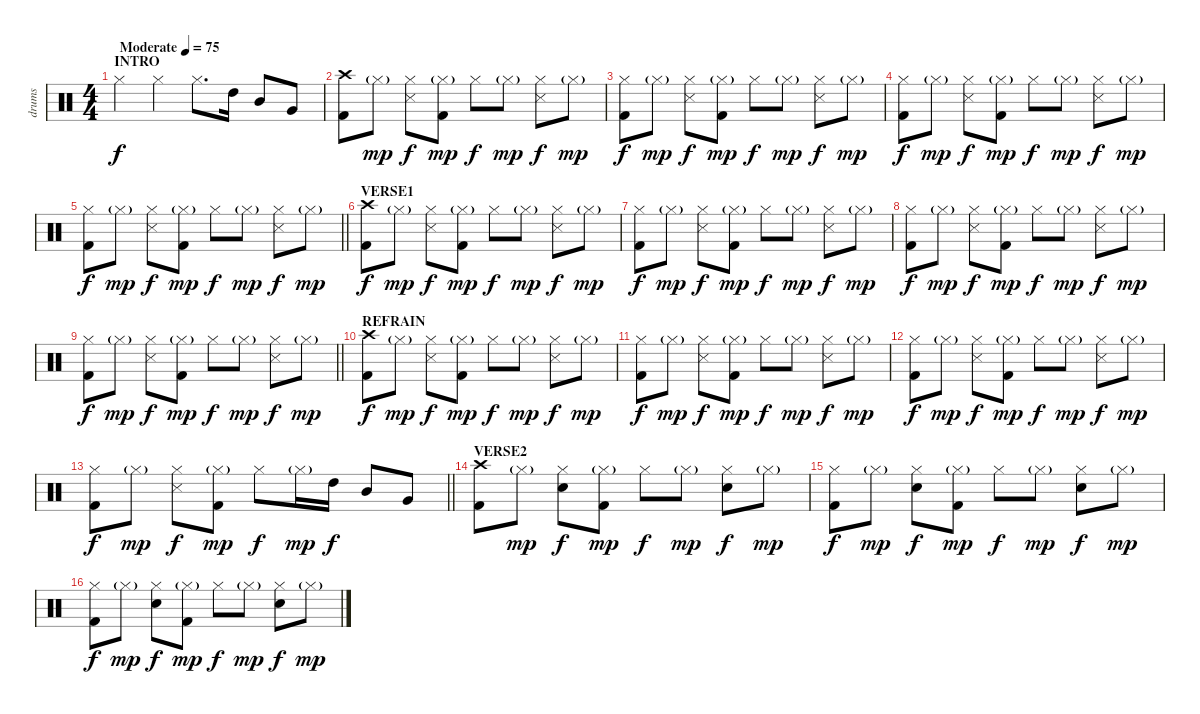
\track ("drums" "drums") {instrument percussion}
\staff
\articulation defaults
\ts (4 4)
\section ("" "INTRO")
\tempo (75 "Moderate")
\clef neutral
\ks c "Hi-Hat (closed)".4{dy f} "Hi-Hat (closed)".4 "Hi-Hat (closed)".8{d} "High Tom (hit)".16 "Mid Tom (hit)".8 "Very Low Tom (hit)".8
|
("Crash high (hit)" "Kick (hit) 2").8 "Hi-Hat (closed)"{g}.8{dy mp} ("Hi-Hat (closed)" "Snare (side stick) 3").8{dy f} ("Hi-Hat (closed)"{g} "Kick (hit) 2").8{dy mp} "Hi-Hat (closed)".8{dy f} "Hi-Hat (closed)"{g}.8{dy mp} ("Hi-Hat (closed)" "Snare (side stick) 3").8{dy f} "Hi-Hat (closed)"{g}.8{dy mp} |
("Hi-Hat (closed)" "Kick (hit) 2").8{dy f} "Hi-Hat (closed)"{g}.8{dy mp} ("Hi-Hat (closed)" "Snare (side stick) 3").8{dy f} ("Hi-Hat (closed)"{g} "Kick (hit) 2").8{dy mp} "Hi-Hat (closed)".8{dy f} "Hi-Hat (closed)"{g}.8{dy mp} ("Hi-Hat (closed)" "Snare (side stick) 3").8{dy f} "Hi-Hat (closed)"{g}.8{dy mp} |
("Hi-Hat (closed)" "Kick (hit) 2").8{dy f} "Hi-Hat (closed)"{g}.8{dy mp} ("Hi-Hat (closed)" "Snare (side stick) 3").8{dy f} ("Hi-Hat (closed)"{g} "Kick (hit) 2").8{dy mp} "Hi-Hat (closed)".8{dy f} "Hi-Hat (closed)"{g}.8{dy mp} ("Hi-Hat (closed)" "Snare (side stick) 3").8{dy f} "Hi-Hat (closed)"{g}.8{dy mp} |
\barLineRight lightlight
("Hi-Hat (closed)" "Kick (hit) 2").8{dy f} "Hi-Hat (closed)"{g}.8{dy mp} ("Hi-Hat (closed)" "Snare (side stick) 3").8{dy f} ("Hi-Hat (closed)"{g} "Kick (hit) 2").8{dy mp} "Hi-Hat (closed)".8{dy f} "Hi-Hat (closed)"{g}.8{dy mp} ("Hi-Hat (closed)" "Snare (side stick) 3").8{dy f} "Hi-Hat (closed)"{g}.8{dy mp} |
\section ("" "VERSE1")
("Crash high (hit)" "Kick (hit) 2").8{dy f} "Hi-Hat (closed)"{g}.8{dy mp} ("Hi-Hat (closed)" "Snare (side stick) 3").8{dy f} ("Hi-Hat (closed)"{g} "Kick (hit) 2").8{dy mp} "Hi-Hat (closed)".8{dy f} "Hi-Hat (closed)"{g}.8{dy mp} ("Hi-Hat (closed)" "Snare (side stick) 3").8{dy f} "Hi-Hat (closed)"{g}.8{dy mp} |
("Hi-Hat (closed)" "Kick (hit) 2").8{dy f} "Hi-Hat (closed)"{g}.8{dy mp} ("Hi-Hat (closed)" "Snare (side stick) 3").8{dy f} ("Hi-Hat (closed)"{g} "Kick (hit) 2").8{dy mp} "Hi-Hat (closed)".8{dy f} "Hi-Hat (closed)"{g}.8{dy mp} ("Hi-Hat (closed)" "Snare (side stick) 3").8{dy f} "Hi-Hat (closed)"{g}.8{dy mp} |
("Hi-Hat (closed)" "Kick (hit) 2").8{dy f} "Hi-Hat (closed)"{g}.8{dy mp} ("Hi-Hat (closed)" "Snare (side stick) 3").8{dy f} ("Hi-Hat (closed)"{g} "Kick (hit) 2").8{dy mp} "Hi-Hat (closed)".8{dy f} "Hi-Hat (closed)"{g}.8{dy mp} ("Hi-Hat (closed)" "Snare (side stick) 3").8{dy f} "Hi-Hat (closed)"{g}.8{dy mp} |
\barLineRight lightlight
("Hi-Hat (closed)" "Kick (hit) 2").8{dy f} "Hi-Hat (closed)"{g}.8{dy mp} ("Hi-Hat (closed)" "Snare (side stick) 3").8{dy f} ("Hi-Hat (closed)"{g} "Kick (hit) 2").8{dy mp} "Hi-Hat (closed)".8{dy f} "Hi-Hat (closed)"{g}.8{dy mp} ("Hi-Hat (closed)" "Snare (side stick) 3").8{dy f} "Hi-Hat (closed)"{g}.8{dy mp} |
\section ("" "REFRAIN")
("Crash high (hit)" "Kick (hit) 2").8{dy f} "Hi-Hat (closed)"{g}.8{dy mp} ("Hi-Hat (closed)" "Snare (side stick) 3").8{dy f} ("Hi-Hat (closed)"{g} "Kick (hit) 2").8{dy mp} "Hi-Hat (closed)".8{dy f} "Hi-Hat (closed)"{g}.8{dy mp} ("Hi-Hat (closed)" "Snare (side stick) 3").8{dy f} "Hi-Hat (closed)"{g}.8{dy mp} |
("Hi-Hat (closed)" "Kick (hit) 2").8{dy f} "Hi-Hat (closed)"{g}.8{dy mp} ("Hi-Hat (closed)" "Snare (side stick) 3").8{dy f} ("Hi-Hat (closed)"{g} "Kick (hit) 2").8{dy mp} "Hi-Hat (closed)".8{dy f} "Hi-Hat (closed)"{g}.8{dy mp} ("Hi-Hat (closed)" "Snare (side stick) 3").8{dy f} "Hi-Hat (closed)"{g}.8{dy mp} |
("Hi-Hat (closed)" "Kick (hit) 2").8{dy f} "Hi-Hat (closed)"{g}.8{dy mp} ("Hi-Hat (closed)" "Snare (side stick) 3").8{dy f} ("Hi-Hat (closed)"{g} "Kick (hit) 2").8{dy mp} "Hi-Hat (closed)".8{dy f} "Hi-Hat (closed)"{g}.8{dy mp} ("Hi-Hat (closed)" "Snare (side stick) 3").8{dy f} "Hi-Hat (closed)"{g}.8{dy mp} |
\barLineRight lightlight
("Hi-Hat (closed)" "Kick (hit) 2").8{dy f} "Hi-Hat (closed)"{g}.8{dy mp} ("Hi-Hat (closed)" "Snare (side stick) 3").8{dy f} ("Hi-Hat (closed)"{g} "Kick (hit) 2").8{dy mp} "Hi-Hat (closed)".8{dy f} "Hi-Hat (closed)"{g}.16{dy mp} "High Tom (hit)".16{dy f} "Mid Tom (hit)".8 "Very Low Tom (hit)".8 |
\section ("" "VERSE2")
("Crash high (hit)" "Kick (hit) 2").8 "Hi-Hat (closed)"{g}.8{dy mp} ("Hi-Hat (closed)" "Electric Snare (hit)").8{dy f} ("Hi-Hat (closed)"{g} "Kick (hit) 2").8{dy mp} "Hi-Hat (closed)".8{dy f} "Hi-Hat (closed)"{g}.8{dy mp} ("Hi-Hat (closed)" "Electric Snare (hit)").8{dy f} "Hi-Hat (closed)"{g}.8{dy mp} |
("Hi-Hat (closed)" "Kick (hit) 2").8{dy f} "Hi-Hat (closed)"{g}.8{dy mp} ("Hi-Hat (closed)" "Electric Snare (hit)").8{dy f} ("Hi-Hat (closed)"{g} "Kick (hit) 2").8{dy mp} "Hi-Hat (closed)".8{dy f} "Hi-Hat (closed)"{g}.8{dy mp} ("Hi-Hat (closed)" "Electric Snare (hit)").8{dy f} "Hi-Hat (closed)"{g}.8{dy mp} |
("Hi-Hat (closed)" "Kick (hit) 2").8{dy f} "Hi-Hat (closed)"{g}.8{dy mp} ("Hi-Hat (closed)" "Electric Snare (hit)").8{dy f} ("Hi-Hat (closed)"{g} "Kick (hit) 2").8{dy mp} "Hi-Hat (closed)".8{dy f} "Hi-Hat (closed)"{g}.8{dy mp} ("Hi-Hat (closed)" "Electric Snare (hit)").8{dy f} "Hi-Hat (closed)"{g}.8{dy mp}
